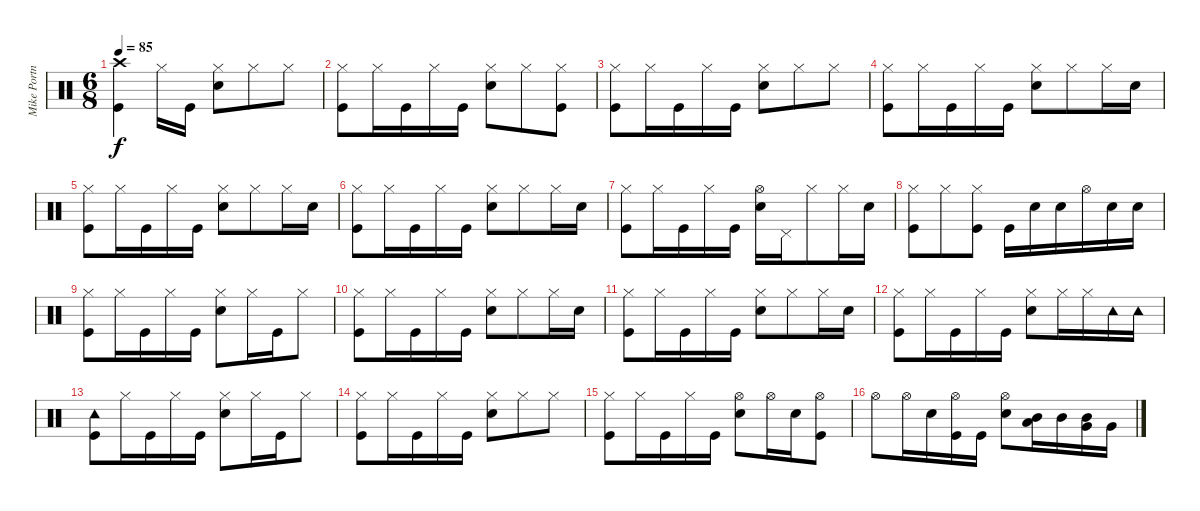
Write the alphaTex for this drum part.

\track ("Mike Portnoy" "Mike Portn") {instrument percussion}
\staff {score}
\articulation defaults
\ts (6 8)
\tempo 85
\clef neutral
\ks c
("Crash high (hit)" "Kick (hit)").4{dy f} "Hi-Hat (closed)".16 "Kick (hit)".16 ("Hi-Hat (closed)" "Electric Snare (hit)").8 "Hi-Hat (closed)".8 "Hi-Hat (closed)".8 |
("Hi-Hat (closed)" "Kick (hit)").8 "Hi-Hat (closed)".16 "Kick (hit)".16 "Hi-Hat (closed)".16 "Kick (hit)".16 ("Hi-Hat (closed)" "Electric Snare (hit)").8 "Hi-Hat (closed)".8 ("Hi-Hat (closed)" "Kick (hit)").8 |
("Hi-Hat (closed)" "Kick (hit)").8 "Hi-Hat (closed)".16 "Kick (hit)".16 "Hi-Hat (closed)".16 "Kick (hit)".16 ("Hi-Hat (closed)" "Electric Snare (hit)").8 "Hi-Hat (closed)".8 "Hi-Hat (closed)".8 |
("Hi-Hat (closed)" "Kick (hit)").8 "Hi-Hat (closed)".16 "Kick (hit)".16 "Hi-Hat (closed)".16 "Kick (hit)".16 ("Hi-Hat (closed)" "Electric Snare (hit)").8 "Hi-Hat (closed)".8 "Hi-Hat (closed)".16 "Electric Snare (hit)".16 |
("Hi-Hat (closed)" "Kick (hit)").8 "Hi-Hat (closed)".16 "Kick (hit)".16 "Hi-Hat (closed)".16 "Kick (hit)".16 ("Hi-Hat (closed)" "Electric Snare (hit)").8 "Hi-Hat (closed)".8 "Hi-Hat (closed)".16 "Electric Snare (hit)".16 |
("Hi-Hat (closed)" "Kick (hit)").8 "Hi-Hat (closed)".16 "Kick (hit)".16 "Hi-Hat (closed)".16 "Kick (hit)".16 ("Hi-Hat (closed)" "Electric Snare (hit)").8 "Hi-Hat (closed)".8 "Hi-Hat (closed)".16 "Electric Snare (hit)".16 |
("Hi-Hat (closed)" "Kick (hit)").8 "Hi-Hat (closed)".16 "Kick (hit)".16 "Hi-Hat (closed)".16 "Kick (hit)".16 ("Hi-Hat (open)" "Electric Snare (hit)").16 "Pedal Hi-Hat (hit)".16 "Hi-Hat (closed)".8 "Hi-Hat (closed)".16 "Electric Snare (hit)".16 |
("Hi-Hat (closed)" "Kick (hit)").8 "Hi-Hat (closed)".8 ("Hi-Hat (closed)" "Kick (hit)").8 "Kick (hit)".16 "Electric Snare (hit)".16 "Electric Snare (hit)".16 "Hi-Hat (open)".16 "Electric Snare (hit)".16 "Electric Snare (hit)".16 |
("Hi-Hat (closed)" "Kick (hit)").8 "Hi-Hat (closed)".16 "Kick (hit)".16 "Hi-Hat (closed)".16 "Kick (hit)".16 ("Hi-Hat (closed)" "Electric Snare (hit)").8 "Hi-Hat (closed)".16 "Kick (hit)".16 "Hi-Hat (closed)".8 |
("Hi-Hat (closed)" "Kick (hit)").8 "Hi-Hat (closed)".16 "Kick (hit)".16 "Hi-Hat (closed)".16 "Kick (hit)".16 ("Hi-Hat (closed)" "Electric Snare (hit)").8 "Hi-Hat (closed)".8 "Hi-Hat (closed)".16 "Electric Snare (hit)".16 |
("Hi-Hat (closed)" "Kick (hit)").8 "Hi-Hat (closed)".16 "Kick (hit)".16 "Hi-Hat (closed)".16 "Kick (hit)".16 ("Hi-Hat (closed)" "Electric Snare (hit)").8 "Hi-Hat (closed)".8 "Hi-Hat (closed)".16 "Electric Snare (hit)".16 |
("Hi-Hat (closed)" "Kick (hit)").8 "Hi-Hat (closed)".16 "Kick (hit)".16 "Hi-Hat (closed)".16 "Kick (hit)".16 ("Hi-Hat (closed)" "Electric Snare (hit)").8 "Hi-Hat (closed)".16 "Hi-Hat (closed)".16 "Tambourine (hit)".16 "Tambourine (hit)".16 |
("Tambourine (hit)" "Kick (hit)").8 "Hi-Hat (closed)".16 "Kick (hit)".16 "Hi-Hat (closed)".16 "Kick (hit)".16 ("Hi-Hat (closed)" "Electric Snare (hit)").8 "Hi-Hat (closed)".16 "Kick (hit)".16 "Hi-Hat (closed)".8 |
("Hi-Hat (closed)" "Kick (hit)").8 "Hi-Hat (closed)".16 "Kick (hit)".16 "Hi-Hat (closed)".16 "Kick (hit)".16 ("Hi-Hat (closed)" "Electric Snare (hit)").8 "Hi-Hat (closed)".8 "Hi-Hat (closed)".8 |
("Hi-Hat (closed)" "Kick (hit)").8 "Hi-Hat (closed)".16 "Kick (hit)".16 "Hi-Hat (closed)".16 "Kick (hit)".16 ("Hi-Hat (open)" "Electric Snare (hit)").8 "Hi-Hat (open)".16 "Electric Snare (hit)".16 ("Hi-Hat (open)" "Kick (hit)").8 |
"Hi-Hat (open)".8 "Hi-Hat (open)".16 "Electric Snare (hit)".16 ("Hi-Hat (open)" "Kick (hit)").16 "Kick (hit)".16 ("Hi-Hat (open)" "Electric Snare (hit)").8 ("Low Tom (hit)" "Mid Tom (hit)").16 "Mid Tom (hit)".16 ("Mid Tom (hit)" "Very Low Tom (hit)").16 "Very Low Tom (hit)".16
